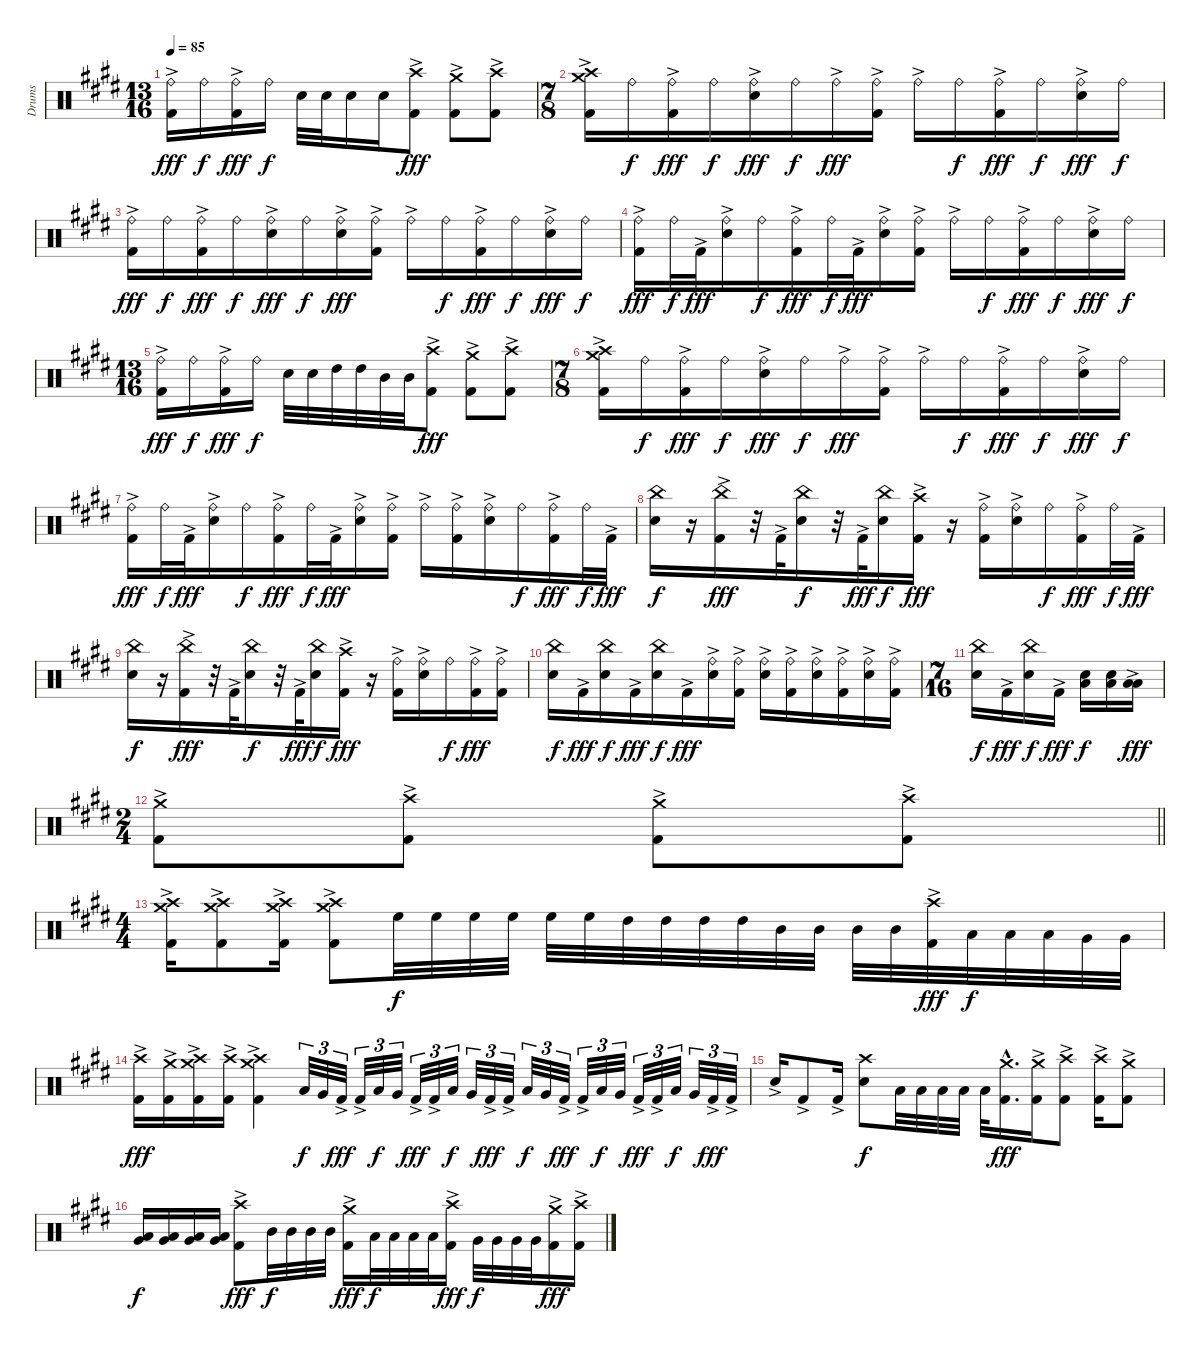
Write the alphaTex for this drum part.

\track ("Drums" "Drums") {instrument percussion}
\staff {score}
\articulation defaults
\ts (13 16)
\tempo 85
\clef neutral
\ks e
("Ride (bell)"{ac} "Kick (hit) 2"{ac}).16{dy fff} "Ride (bell)".16{dy f} ("Ride (bell)"{ac} "Kick (hit) 2"{ac}).16{dy fff} "Ride (bell)".16{dy f} "Snare (hit) 2".32 "Snare (hit) 2".32 "Snare (hit) 2".16 "Snare (hit) 2".16 ("Crash high (hit)" "Kick (hit) 2"{ac}).8{dy fff} ("Crash medium (hit)" "Kick (hit) 2"{ac}).8 ("Crash high (hit)" "Kick (hit) 2"{ac}).8 |
\ts (7 8)
("Crash high (hit)" "Crash medium (hit)" "Kick (hit) 2"{ac}).16 "Ride (bell)".16{dy f} ("Ride (bell)"{ac} "Kick (hit) 2"{ac}).16{dy fff} "Ride (bell)".16{dy f} ("Ride (bell)"{ac} "Snare (hit) 2").16{dy fff} "Ride (bell)".16{dy f} "Ride (bell)"{ac}.16{dy fff} ("Ride (bell)" "Kick (hit) 2"{ac}).16 "Ride (bell)"{ac}.16 "Ride (bell)".16{dy f} ("Ride (bell)"{ac} "Kick (hit) 2"{ac}).16{dy fff} "Ride (bell)".16{dy f} ("Ride (bell)"{ac} "Snare (hit) 2").16{dy fff} "Ride (bell)".16{dy f} |
("Ride (bell)"{ac} "Kick (hit) 2"{ac}).16{dy fff} "Ride (bell)".16{dy f} ("Ride (bell)"{ac} "Kick (hit) 2"{ac}).16{dy fff} "Ride (bell)".16{dy f} ("Ride (bell)"{ac} "Snare (hit) 2").16{dy fff} "Ride (bell)".16{dy f} ("Ride (bell)"{ac} "Snare (hit) 2").16{dy fff} ("Ride (bell)" "Kick (hit) 2"{ac}).16 "Ride (bell)"{ac}.16 "Ride (bell)".16{dy f} ("Ride (bell)"{ac} "Kick (hit) 2"{ac}).16{dy fff} "Ride (bell)".16{dy f} ("Ride (bell)"{ac} "Snare (hit) 2").16{dy fff} "Ride (bell)".16{dy f} |
("Ride (bell)"{ac} "Kick (hit) 2"{ac}).16{dy fff} "Ride (bell)".32{dy f} "Kick (hit) 2"{ac}.32{dy fff} ("Ride (bell)"{ac} "Snare (hit) 2").16 "Ride (bell)".16{dy f} ("Ride (bell)"{ac} "Kick (hit) 2"{ac}).16{dy fff} "Ride (bell)".32{dy f} "Kick (hit) 2"{ac}.32{dy fff} ("Ride (bell)"{ac} "Snare (hit) 2").16 ("Ride (bell)" "Kick (hit) 2"{ac}).16 "Ride (bell)"{ac}.16 "Ride (bell)".16{dy f} ("Ride (bell)"{ac} "Kick (hit) 2"{ac}).16{dy fff} "Ride (bell)".16{dy f} ("Ride (bell)"{ac} "Snare (hit) 2").16{dy fff} "Ride (bell)".16{dy f} |
\ts (13 16)
("Ride (bell)"{ac} "Kick (hit) 2"{ac}).16{dy fff} "Ride (bell)".16{dy f} ("Ride (bell)"{ac} "Kick (hit) 2"{ac}).16{dy fff} "Ride (bell)".16{dy f} "Snare (hit) 2".32 "Snare (hit) 2".32 "High Tom (hit)".32 "High Tom (hit)".32 "Mid Tom (hit)".32 "Mid Tom (hit)".32 ("Crash high (hit)" "Kick (hit) 2"{ac}).8{dy fff} ("Crash medium (hit)" "Kick (hit) 2"{ac}).8 ("Crash high (hit)" "Kick (hit) 2"{ac}).8 |
\ts (7 8)
("Crash high (hit)" "Crash medium (hit)" "Kick (hit) 2"{ac}).16 "Ride (bell)".16{dy f} ("Ride (bell)"{ac} "Kick (hit) 2"{ac}).16{dy fff} "Ride (bell)".16{dy f} ("Ride (bell)"{ac} "Snare (hit) 2").16{dy fff} "Ride (bell)".16{dy f} "Ride (bell)"{ac}.16{dy fff} ("Ride (bell)" "Kick (hit) 2"{ac}).16 "Ride (bell)"{ac}.16 "Ride (bell)".16{dy f} ("Ride (bell)"{ac} "Kick (hit) 2"{ac}).16{dy fff} "Ride (bell)".16{dy f} ("Ride (bell)"{ac} "Snare (hit) 2").16{dy fff} "Ride (bell)".16{dy f} |
("Ride (bell)"{ac} "Kick (hit) 2"{ac}).16{dy fff} "Ride (bell)".32{dy f} "Kick (hit) 2"{ac}.32{dy fff} ("Ride (bell)"{ac} "Snare (hit) 2").16 "Ride (bell)".16{dy f} ("Ride (bell)"{ac} "Kick (hit) 2"{ac}).16{dy fff} "Ride (bell)".32{dy f} "Kick (hit) 2"{ac}.32{dy fff} ("Ride (bell)"{ac} "Snare (hit) 2").16 ("Ride (bell)" "Kick (hit) 2"{ac}).16 "Ride (bell)"{ac}.16 ("Ride (bell)" "Kick (hit) 2"{ac}).16 ("Ride (bell)"{ac} "Snare (hit) 2").16 "Ride (bell)".16{dy f} ("Ride (bell)"{ac} "Kick (hit) 2"{ac}).16{dy fff} "Ride (bell)".32{dy f} "Kick (hit) 2"{ac}.32{dy fff} |
("China (hit)" "Snare (hit) 2").16{dy f} r.16 ("China (hit)" "Kick (hit) 2"{ac}).16{dy fff} r.32 "Kick (hit) 2"{ac}.32 ("China (hit)" "Snare (hit) 2").16{dy f} r.32 "Kick (hit) 2"{ac}.32{dy fff} ("China (hit)" "Snare (hit) 2").16{dy f} ("Crash high (hit)" "Kick (hit) 2"{ac}).16{dy fff} r.16 ("Ride (bell)" "Kick (hit) 2"{ac}).16 ("Ride (bell)"{ac} "Snare (hit) 2").16 "Ride (bell)".16{dy f} ("Ride (bell)"{ac} "Kick (hit) 2"{ac}).16{dy fff} "Ride (bell)".32{dy f} "Kick (hit) 2"{ac}.32{dy fff} |
("China (hit)" "Snare (hit) 2").16{dy f} r.16 ("China (hit)" "Kick (hit) 2"{ac}).16{dy fff} r.32 "Kick (hit) 2"{ac}.32 ("China (hit)" "Snare (hit) 2").16{dy f} r.32 "Kick (hit) 2"{ac}.32{dy fff} ("China (hit)" "Snare (hit) 2").16{dy f} ("Crash high (hit)" "Kick (hit) 2"{ac}).16{dy fff} r.16 ("Ride (bell)" "Kick (hit) 2"{ac}).16 ("Ride (bell)"{ac} "Snare (hit) 2").16 "Ride (bell)".16{dy f} ("Ride (bell)"{ac} "Kick (hit) 2"{ac}).16{dy fff} ("Ride (bell)" "Kick (hit) 2"{ac}).16 |
("China (hit)" "Snare (hit) 2").16{dy f} "Kick (hit) 2"{ac}.16{dy fff} ("China (hit)" "Snare (hit) 2").16{dy f} "Kick (hit) 2"{ac}.16{dy fff} ("China (hit)" "Snare (hit) 2").16{dy f} "Kick (hit) 2"{ac}.16{dy fff} ("Ride (bell)"{ac} "Snare (hit) 2").16 ("Ride (bell)" "Kick (hit) 2"{ac}).16 ("Ride (bell)"{ac} "Snare (hit) 2").16 ("Ride (bell)" "Kick (hit) 2"{ac}).16 ("Ride (bell)"{ac} "Snare (hit) 2").16 ("Ride (bell)" "Kick (hit) 2"{ac}).16 ("Ride (bell)"{ac} "Snare (hit) 2").16 ("Ride (bell)" "Kick (hit) 2"{ac}).16 |
\ts (7 16)
("China (hit)" "Snare (hit) 2").16{dy f} "Kick (hit) 2"{ac}.16{dy fff} ("China (hit)" "Snare (hit) 2").16{dy f} "Kick (hit) 2"{ac}.16{dy fff} ("Snare (hit) 2" "Low Floor Tom (hit)").16{dy f} ("Snare (hit) 2" "Low Floor Tom (hit)").16 ("Low Tom (hit)"{ac} "Low Floor Tom (hit)"{ac}).16{dy fff} |
\ts (2 4)
\barLineRight lightlight
("Crash medium (hit)" "Kick (hit) 2"{ac}).8 ("Crash high (hit)" "Kick (hit) 2"{ac}).8 ("Crash medium (hit)" "Kick (hit) 2"{ac}).8 ("Crash high (hit)" "Kick (hit) 2"{ac}).8 |
\ts (4 4)
("Crash high (hit)" "Crash medium (hit)" "Kick (hit) 2"{ac}).16 ("Crash high (hit)" "Crash medium (hit)" "Kick (hit) 2"{ac}).8 ("Crash high (hit)" "Crash medium (hit)" "Kick (hit) 2"{ac}).16 ("Crash high (hit)" "Crash medium (hit)" "Kick (hit) 2"{ac}).8 "High Floor Tom (hit)".32{dy f} "High Floor Tom (hit)".32 "High Floor Tom (hit)".32 "High Floor Tom (hit)".32 "High Floor Tom (hit)".32 "High Floor Tom (hit)".32 "High Tom (hit)".32 "High Tom (hit)".32 "High Tom (hit)".32 "High Tom (hit)".32 "Mid Tom (hit)".32 "Mid Tom (hit)".32 "Mid Tom (hit)".32 "Mid Tom (hit)".32 ("Crash high (hit)" "Kick (hit) 2"{ac}).32{dy fff} "Low Tom (hit)".32{dy f} "Low Tom (hit)".32 "Low Tom (hit)".32 "Very Low Tom (hit)".32 "Very Low Tom (hit)".32 |
("Crash high (hit)" "Kick (hit) 2"{ac}).16{dy fff} ("Crash medium (hit)" "Kick (hit) 2"{ac}).16 ("Crash medium (hit)" "Crash high (hit)" "Kick (hit) 2"{ac}).16 ("Crash high (hit)" "Kick (hit) 2"{ac}).16 ("Crash medium (hit)" "Crash high (hit)" "Kick (hit) 2"{ac}).4 "Low Floor Tom (hit)".32{tu (3 2) dy f} "Very Low Tom (hit)".32{tu (3 2)} "Kick (hit) 2"{ac}.32{tu (3 2) dy fff} "Kick (hit) 2"{ac}.32{tu (3 2)} "Low Floor Tom (hit)".32{tu (3 2) dy f} "Very Low Tom (hit)".32{tu (3 2)} "Kick (hit) 2"{ac}.32{tu (3 2) dy fff} "Kick (hit) 2"{ac}.32{tu (3 2)} "Low Floor Tom (hit)".32{tu (3 2) dy f} "Very Low Tom (hit)".32{tu (3 2)} "Kick (hit) 2"{ac}.32{tu (3 2) dy fff} "Kick (hit) 2"{ac}.32{tu (3 2)} "Low Floor Tom (hit)".32{tu (3 2) dy f} "Very Low Tom (hit)".32{tu (3 2)} "Kick (hit) 2"{ac}.32{tu (3 2) dy fff} "Kick (hit) 2"{ac}.32{tu (3 2)} "Low Floor Tom (hit)".32{tu (3 2) dy f} "Very Low Tom (hit)".32{tu (3 2)} "Kick (hit) 2"{ac}.32{tu (3 2) dy fff} "Kick (hit) 2"{ac}.32{tu (3 2)} "Low Floor Tom (hit)".32{tu (3 2) dy f} "Very Low Tom (hit)".32{tu (3 2)} "Kick (hit) 2"{ac}.32{tu (3 2) dy fff} "Kick (hit) 2"{ac}.32{tu (3 2)} |
"Snare (hit) 2"{ac}.16 "Kick (hit) 2"{ac}.8 "Kick (hit) 2"{ac}.16 ("Crash high (hit)" "Snare (hit) 2").8{dy f} "Low Tom (hit)".32 "Low Tom (hit)".32 "Low Tom (hit)".32 "Low Tom (hit)".32 "Low Tom (hit)".32 ("Crash medium (hit)"{hac} "Kick (hit) 2"{hac}).16{d dy fff} ("Crash medium (hit)" "Kick (hit) 2"{ac}).16 ("Crash high (hit)" "Kick (hit) 2"{ac}).8 ("Crash high (hit)" "Kick (hit) 2"{ac}).16 ("Crash medium (hit)" "Kick (hit) 2"{ac}).8 |
("Low Tom (hit)" "Very Low Tom (hit)").16{dy f} ("Low Tom (hit)" "Very Low Tom (hit)").16 ("Low Tom (hit)" "Very Low Tom (hit)").16 ("Low Tom (hit)" "Very Low Tom (hit)").16 ("Crash high (hit)" "Kick (hit) 2"{ac}).8{dy fff} "Mid Tom (hit)".32{dy f} "Mid Tom (hit)".32 "Mid Tom (hit)".32 "Mid Tom (hit)".32 ("Crash medium (hit)" "Kick (hit) 2"{ac}).16{dy fff} "Low Tom (hit)".32{dy f} "Low Tom (hit)".32 "Low Tom (hit)".32 "Low Tom (hit)".32 ("Crash high (hit)" "Kick (hit) 2"{ac}).16{dy fff} "Very Low Tom (hit)".32{dy f} "Very Low Tom (hit)".32 "Very Low Tom (hit)".32 "Very Low Tom (hit)".32 ("Crash medium (hit)" "Kick (hit) 2"{ac}).16{dy fff} ("Crash high (hit)" "Kick (hit) 2"{ac}).16
